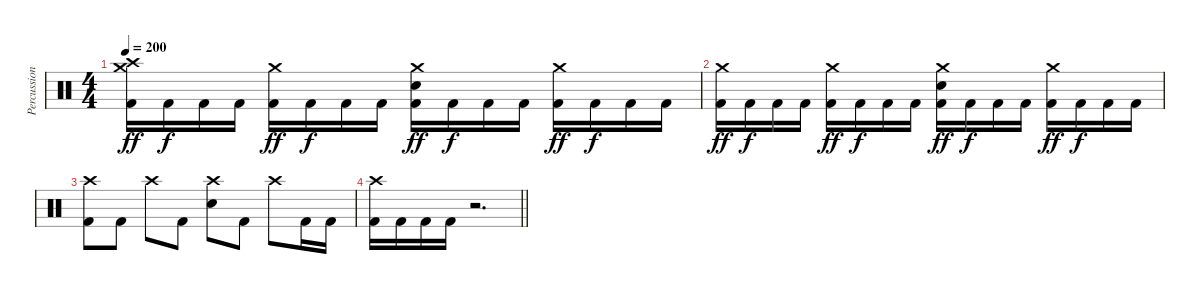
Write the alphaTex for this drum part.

\track ("Percussions" "Percussion") {instrument percussion}
\staff {score}
\articulation defaults
\ts (4 4)
\tempo 200
\clef neutral
\ks c
("Crash high (hit)" "Crash medium (hit)" "Kick (hit) 2").16{dy ff} "Kick (hit) 2".16{dy f} "Kick (hit) 2".16 "Kick (hit) 2".16 ("Crash medium (hit)" "Kick (hit) 2").16{dy ff} "Kick (hit) 2".16{dy f} "Kick (hit) 2".16 "Kick (hit) 2".16 ("Crash medium (hit)" "Electric Snare (hit)" "Kick (hit) 2").16{dy ff} "Kick (hit) 2".16{dy f} "Kick (hit) 2".16 "Kick (hit) 2".16 ("Crash medium (hit)" "Kick (hit) 2").16{dy ff} "Kick (hit) 2".16{dy f} "Kick (hit) 2".16 "Kick (hit) 2".16 |
("Crash medium (hit)" "Kick (hit) 2").16{dy ff} "Kick (hit) 2".16{dy f} "Kick (hit) 2".16 "Kick (hit) 2".16 ("Crash medium (hit)" "Kick (hit) 2").16{dy ff} "Kick (hit) 2".16{dy f} "Kick (hit) 2".16 "Kick (hit) 2".16 ("Crash medium (hit)" "Electric Snare (hit)" "Kick (hit) 2").16{dy ff} "Kick (hit) 2".16{dy f} "Kick (hit) 2".16 "Kick (hit) 2".16 ("Crash medium (hit)" "Kick (hit) 2").16{dy ff} "Kick (hit) 2".16{dy f} "Kick (hit) 2".16 "Kick (hit) 2".16 |
("Crash high (hit)" "Kick (hit) 2").8 "Kick (hit) 2".8 "Crash high (hit)".8 "Kick (hit) 2".8 ("Crash high (hit)" "Electric Snare (hit)").8 "Kick (hit) 2".8 "Crash high (hit)".8 "Kick (hit) 2".16 "Kick (hit) 2".16 |
\barLineRight lightlight
("Crash high (hit)" "Kick (hit) 2").16 "Kick (hit) 2".16 "Kick (hit) 2".16 "Kick (hit) 2".16 r.2{d}
